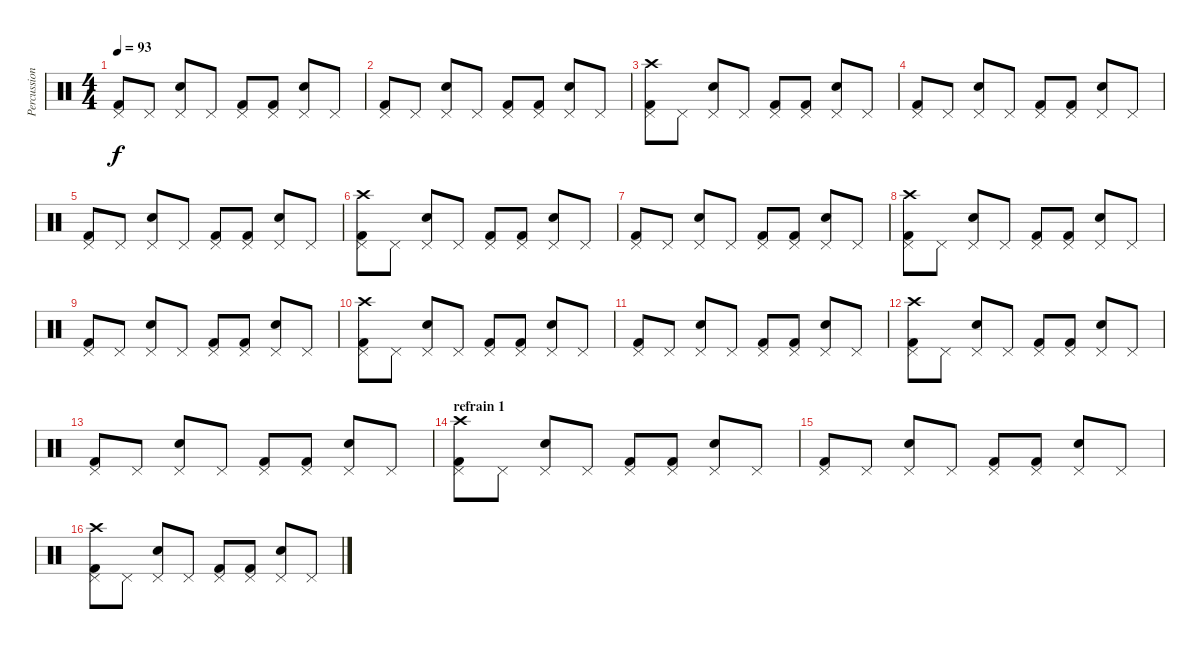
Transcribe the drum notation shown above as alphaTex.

\track ("Percussions" "Percussion") {instrument percussion}
\staff {score}
\articulation defaults
\ts (4 4)
\tempo 93
\clef neutral
\ks c
("Pedal Hi-Hat (hit)" "Kick (hit) 2").8{dy f} "Pedal Hi-Hat (hit)".8 ("Pedal Hi-Hat (hit)" "Electric Snare (hit)").8 "Pedal Hi-Hat (hit)".8 ("Pedal Hi-Hat (hit)" "Kick (hit) 2").8 ("Pedal Hi-Hat (hit)" "Kick (hit) 2").8 ("Pedal Hi-Hat (hit)" "Electric Snare (hit)").8 "Pedal Hi-Hat (hit)".8 |
("Pedal Hi-Hat (hit)" "Kick (hit) 2").8 "Pedal Hi-Hat (hit)".8 ("Pedal Hi-Hat (hit)" "Electric Snare (hit)").8 "Pedal Hi-Hat (hit)".8 ("Pedal Hi-Hat (hit)" "Kick (hit) 2").8 ("Pedal Hi-Hat (hit)" "Kick (hit) 2").8 ("Pedal Hi-Hat (hit)" "Electric Snare (hit)").8 "Pedal Hi-Hat (hit)".8 |
("Pedal Hi-Hat (hit)" "Crash high (hit)" "Kick (hit) 2").8 "Pedal Hi-Hat (hit)".8 ("Pedal Hi-Hat (hit)" "Electric Snare (hit)").8 "Pedal Hi-Hat (hit)".8 ("Pedal Hi-Hat (hit)" "Kick (hit) 2").8 ("Pedal Hi-Hat (hit)" "Kick (hit) 2").8 ("Pedal Hi-Hat (hit)" "Electric Snare (hit)").8 "Pedal Hi-Hat (hit)".8 |
("Pedal Hi-Hat (hit)" "Kick (hit) 2").8 "Pedal Hi-Hat (hit)".8 ("Pedal Hi-Hat (hit)" "Electric Snare (hit)").8 "Pedal Hi-Hat (hit)".8 ("Pedal Hi-Hat (hit)" "Kick (hit) 2").8 ("Pedal Hi-Hat (hit)" "Kick (hit) 2").8 ("Pedal Hi-Hat (hit)" "Electric Snare (hit)").8 "Pedal Hi-Hat (hit)".8 |
("Pedal Hi-Hat (hit)" "Kick (hit) 2").8 "Pedal Hi-Hat (hit)".8 ("Pedal Hi-Hat (hit)" "Electric Snare (hit)").8 "Pedal Hi-Hat (hit)".8 ("Pedal Hi-Hat (hit)" "Kick (hit) 2").8 ("Pedal Hi-Hat (hit)" "Kick (hit) 2").8 ("Pedal Hi-Hat (hit)" "Electric Snare (hit)").8 "Pedal Hi-Hat (hit)".8 |
("Pedal Hi-Hat (hit)" "Crash high (hit)" "Kick (hit) 2").8 "Pedal Hi-Hat (hit)".8 ("Pedal Hi-Hat (hit)" "Electric Snare (hit)").8 "Pedal Hi-Hat (hit)".8 ("Pedal Hi-Hat (hit)" "Kick (hit) 2").8 ("Pedal Hi-Hat (hit)" "Kick (hit) 2").8 ("Pedal Hi-Hat (hit)" "Electric Snare (hit)").8 "Pedal Hi-Hat (hit)".8 |
("Pedal Hi-Hat (hit)" "Kick (hit) 2").8 "Pedal Hi-Hat (hit)".8 ("Pedal Hi-Hat (hit)" "Electric Snare (hit)").8 "Pedal Hi-Hat (hit)".8 ("Pedal Hi-Hat (hit)" "Kick (hit) 2").8 ("Pedal Hi-Hat (hit)" "Kick (hit) 2").8 ("Pedal Hi-Hat (hit)" "Electric Snare (hit)").8 "Pedal Hi-Hat (hit)".8 |
("Pedal Hi-Hat (hit)" "Crash high (hit)" "Kick (hit) 2").8 "Pedal Hi-Hat (hit)".8 ("Pedal Hi-Hat (hit)" "Electric Snare (hit)").8 "Pedal Hi-Hat (hit)".8 ("Pedal Hi-Hat (hit)" "Kick (hit) 2").8 ("Pedal Hi-Hat (hit)" "Kick (hit) 2").8 ("Pedal Hi-Hat (hit)" "Electric Snare (hit)").8 "Pedal Hi-Hat (hit)".8 |
("Pedal Hi-Hat (hit)" "Kick (hit) 2").8 "Pedal Hi-Hat (hit)".8 ("Pedal Hi-Hat (hit)" "Electric Snare (hit)").8 "Pedal Hi-Hat (hit)".8 ("Pedal Hi-Hat (hit)" "Kick (hit) 2").8 ("Pedal Hi-Hat (hit)" "Kick (hit) 2").8 ("Pedal Hi-Hat (hit)" "Electric Snare (hit)").8 "Pedal Hi-Hat (hit)".8 |
("Pedal Hi-Hat (hit)" "Crash high (hit)" "Kick (hit) 2").8 "Pedal Hi-Hat (hit)".8 ("Pedal Hi-Hat (hit)" "Electric Snare (hit)").8 "Pedal Hi-Hat (hit)".8 ("Pedal Hi-Hat (hit)" "Kick (hit) 2").8 ("Pedal Hi-Hat (hit)" "Kick (hit) 2").8 ("Pedal Hi-Hat (hit)" "Electric Snare (hit)").8 "Pedal Hi-Hat (hit)".8 |
("Pedal Hi-Hat (hit)" "Kick (hit) 2").8 "Pedal Hi-Hat (hit)".8 ("Pedal Hi-Hat (hit)" "Electric Snare (hit)").8 "Pedal Hi-Hat (hit)".8 ("Pedal Hi-Hat (hit)" "Kick (hit) 2").8 ("Pedal Hi-Hat (hit)" "Kick (hit) 2").8 ("Pedal Hi-Hat (hit)" "Electric Snare (hit)").8 "Pedal Hi-Hat (hit)".8 |
("Pedal Hi-Hat (hit)" "Crash high (hit)" "Kick (hit) 2").8 "Pedal Hi-Hat (hit)".8 ("Pedal Hi-Hat (hit)" "Electric Snare (hit)").8 "Pedal Hi-Hat (hit)".8 ("Pedal Hi-Hat (hit)" "Kick (hit) 2").8 ("Pedal Hi-Hat (hit)" "Kick (hit) 2").8 ("Pedal Hi-Hat (hit)" "Electric Snare (hit)").8 "Pedal Hi-Hat (hit)".8 |
("Pedal Hi-Hat (hit)" "Kick (hit) 2").8 "Pedal Hi-Hat (hit)".8 ("Pedal Hi-Hat (hit)" "Electric Snare (hit)").8 "Pedal Hi-Hat (hit)".8 ("Pedal Hi-Hat (hit)" "Kick (hit) 2").8 ("Pedal Hi-Hat (hit)" "Kick (hit) 2").8 ("Pedal Hi-Hat (hit)" "Electric Snare (hit)").8 "Pedal Hi-Hat (hit)".8 |
\section ("" "refrain 1")
("Pedal Hi-Hat (hit)" "Crash high (hit)" "Kick (hit) 2").8 "Pedal Hi-Hat (hit)".8 ("Pedal Hi-Hat (hit)" "Electric Snare (hit)").8 "Pedal Hi-Hat (hit)".8 ("Pedal Hi-Hat (hit)" "Kick (hit) 2").8 ("Pedal Hi-Hat (hit)" "Kick (hit) 2").8 ("Pedal Hi-Hat (hit)" "Electric Snare (hit)").8 "Pedal Hi-Hat (hit)".8 |
("Pedal Hi-Hat (hit)" "Kick (hit) 2").8 "Pedal Hi-Hat (hit)".8 ("Pedal Hi-Hat (hit)" "Electric Snare (hit)").8 "Pedal Hi-Hat (hit)".8 ("Pedal Hi-Hat (hit)" "Kick (hit) 2").8 ("Pedal Hi-Hat (hit)" "Kick (hit) 2").8 ("Pedal Hi-Hat (hit)" "Electric Snare (hit)").8 "Pedal Hi-Hat (hit)".8 |
("Pedal Hi-Hat (hit)" "Crash high (hit)" "Kick (hit) 2").8 "Pedal Hi-Hat (hit)".8 ("Pedal Hi-Hat (hit)" "Electric Snare (hit)").8 "Pedal Hi-Hat (hit)".8 ("Pedal Hi-Hat (hit)" "Kick (hit) 2").8 ("Pedal Hi-Hat (hit)" "Kick (hit) 2").8 ("Pedal Hi-Hat (hit)" "Electric Snare (hit)").8 "Pedal Hi-Hat (hit)".8
